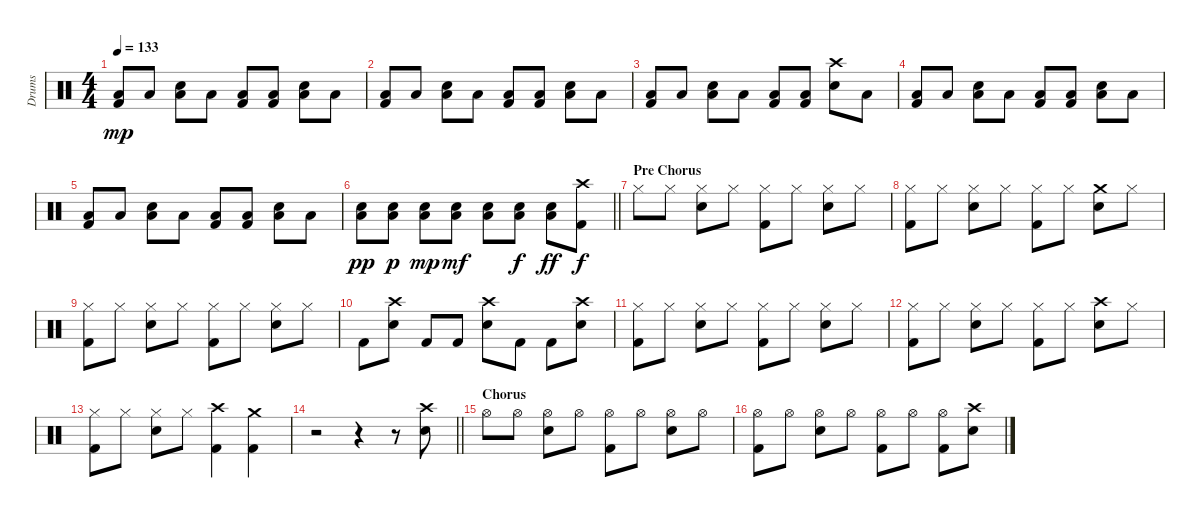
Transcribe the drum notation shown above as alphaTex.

\track ("Drums" "Drums") {instrument percussion}
\staff {score}
\articulation defaults
\ts (4 4)
\tempo 133
\clef neutral
\ks c
("Low Floor Tom (hit)" "Kick (hit) 2").8{dy mp} "Low Floor Tom (hit)".8 ("Low Floor Tom (hit)" "Snare (hit) 2").8 "Low Floor Tom (hit)".8 ("Low Floor Tom (hit)" "Kick (hit) 2").8 ("Low Floor Tom (hit)" "Kick (hit) 2").8 ("Low Floor Tom (hit)" "Snare (hit) 2").8 "Low Floor Tom (hit)".8 |
("Low Floor Tom (hit)" "Kick (hit) 2").8 "Low Floor Tom (hit)".8 ("Low Floor Tom (hit)" "Snare (hit) 2").8 "Low Floor Tom (hit)".8 ("Low Floor Tom (hit)" "Kick (hit) 2").8 ("Low Floor Tom (hit)" "Kick (hit) 2").8 ("Low Floor Tom (hit)" "Snare (hit) 2").8 "Low Floor Tom (hit)".8 |
("Low Floor Tom (hit)" "Kick (hit) 2").8 "Low Floor Tom (hit)".8 ("Low Floor Tom (hit)" "Snare (hit) 2").8 "Low Floor Tom (hit)".8 ("Low Floor Tom (hit)" "Kick (hit) 2").8 ("Low Floor Tom (hit)" "Kick (hit) 2").8 ("Crash high (hit)" "Snare (hit) 2").8 "Low Floor Tom (hit)".8 |
("Low Floor Tom (hit)" "Kick (hit) 2").8 "Low Floor Tom (hit)".8 ("Low Floor Tom (hit)" "Snare (hit) 2").8 "Low Floor Tom (hit)".8 ("Low Floor Tom (hit)" "Kick (hit) 2").8 ("Low Floor Tom (hit)" "Kick (hit) 2").8 ("Low Floor Tom (hit)" "Snare (hit) 2").8 "Low Floor Tom (hit)".8 |
("Low Floor Tom (hit)" "Kick (hit) 2").8 "Low Floor Tom (hit)".8 ("Low Floor Tom (hit)" "Snare (hit) 2").8 "Low Floor Tom (hit)".8 ("Low Floor Tom (hit)" "Kick (hit) 2").8 ("Low Floor Tom (hit)" "Kick (hit) 2").8 ("Low Floor Tom (hit)" "Snare (hit) 2").8 "Low Floor Tom (hit)".8 |
\barLineRight lightlight
("Low Floor Tom (hit)" "Snare (hit) 2").8{dy pp} ("Low Floor Tom (hit)" "Snare (hit) 2").8{dy p} ("Low Floor Tom (hit)" "Snare (hit) 2").8{dy mp} ("Low Floor Tom (hit)" "Snare (hit) 2").8{dy mf} ("Low Floor Tom (hit)" "Snare (hit) 2").8 ("Low Floor Tom (hit)" "Snare (hit) 2").8{dy f} ("Low Floor Tom (hit)" "Snare (hit) 2").8{dy ff} ("Crash high (hit)" "Kick (hit) 2").8{dy f} |
\section ("" "Pre Chorus")
"Hi-Hat (closed)".8 "Hi-Hat (closed)".8 ("Hi-Hat (closed)" "Snare (hit) 2").8 "Hi-Hat (closed)".8 ("Hi-Hat (closed)" "Kick (hit) 2").8 "Hi-Hat (closed)".8 ("Hi-Hat (closed)" "Snare (hit) 2").8 "Hi-Hat (closed)".8 |
("Hi-Hat (closed)" "Kick (hit) 2").8 "Hi-Hat (closed)".8 ("Hi-Hat (closed)" "Snare (hit) 2").8 "Hi-Hat (closed)".8 ("Hi-Hat (closed)" "Kick (hit) 2").8 "Hi-Hat (closed)".8 ("Crash medium (hit)" "Snare (hit) 2").8 "Hi-Hat (closed)".8 |
("Hi-Hat (closed)" "Kick (hit) 2").8 "Hi-Hat (closed)".8 ("Hi-Hat (closed)" "Snare (hit) 2").8 "Hi-Hat (closed)".8 ("Hi-Hat (closed)" "Kick (hit) 2").8 "Hi-Hat (closed)".8 ("Hi-Hat (closed)" "Snare (hit) 2").8 "Hi-Hat (closed)".8 |
"Kick (hit) 2".8 ("Crash high (hit)" "Snare (hit) 2").8 "Kick (hit) 2".8 "Kick (hit) 2".8 ("Crash high (hit)" "Snare (hit) 2").8 "Kick (hit) 2".8 "Kick (hit) 2".8 ("Crash high (hit)" "Snare (hit) 2").8 |
("Hi-Hat (closed)" "Kick (hit) 2").8 "Hi-Hat (closed)".8 ("Hi-Hat (closed)" "Snare (hit) 2").8 "Hi-Hat (closed)".8 ("Hi-Hat (closed)" "Kick (hit) 2").8 "Hi-Hat (closed)".8 ("Hi-Hat (closed)" "Snare (hit) 2").8 "Hi-Hat (closed)".8 |
("Hi-Hat (closed)" "Kick (hit) 2").8 "Hi-Hat (closed)".8 ("Hi-Hat (closed)" "Snare (hit) 2").8 "Hi-Hat (closed)".8 ("Hi-Hat (closed)" "Kick (hit) 2").8 "Hi-Hat (closed)".8 ("Crash high (hit)" "Snare (hit) 2").8 "Hi-Hat (closed)".8 |
("Hi-Hat (closed)" "Kick (hit) 2").8 "Hi-Hat (closed)".8 ("Hi-Hat (closed)" "Snare (hit) 2").8 "Hi-Hat (closed)".8 ("Crash high (hit)" "Kick (hit) 2").4 ("Crash medium (hit)" "Kick (hit) 2").4 |
\barLineRight lightlight
r.2 r.4 r.8 ("Crash high (hit)" "Snare (hit) 2").8 |
\section ("" "Chorus")
"Hi-Hat (open)".8 "Hi-Hat (open)".8 ("Hi-Hat (open)" "Snare (hit) 2").8 "Hi-Hat (open)".8 ("Hi-Hat (open)" "Kick (hit) 2").8 "Hi-Hat (open)".8 ("Hi-Hat (open)" "Snare (hit) 2").8 "Hi-Hat (open)".8 |
("Hi-Hat (open)" "Kick (hit) 2").8 "Hi-Hat (open)".8 ("Hi-Hat (open)" "Snare (hit) 2").8 "Hi-Hat (open)".8 ("Hi-Hat (open)" "Kick (hit) 2").8 "Hi-Hat (open)".8 ("Hi-Hat (open)" "Kick (hit) 2").8 ("Crash high (hit)" "Snare (hit) 2").8
